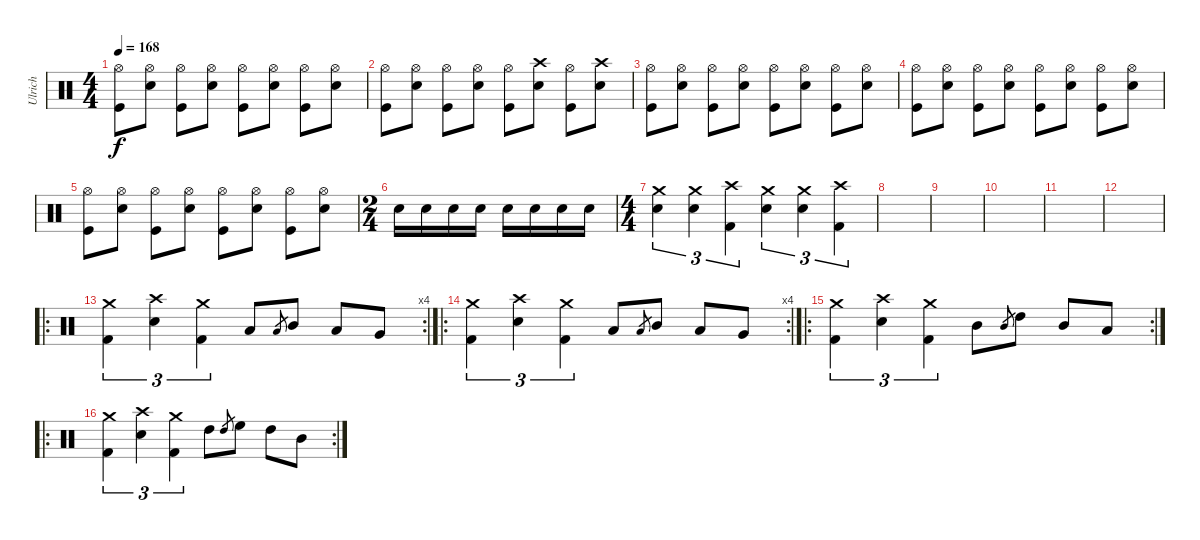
\track ("Ulrich" "Ulrich") {instrument percussion}
\staff {score}
\articulation defaults
\ts (4 4)
\tempo 168
\clef neutral
\ks c
("Hi-Hat (open)" "Kick (hit)").8{dy f} ("Hi-Hat (open)" "Snare (hit) 2").8 ("Hi-Hat (open)" "Kick (hit)").8 ("Hi-Hat (open)" "Snare (hit) 2").8 ("Hi-Hat (open)" "Kick (hit)").8 ("Hi-Hat (open)" "Snare (hit) 2").8 ("Hi-Hat (open)" "Kick (hit)").8 ("Hi-Hat (open)" "Snare (hit) 2").8 |
("Hi-Hat (open)" "Kick (hit)").8 ("Hi-Hat (open)" "Snare (hit) 2").8 ("Hi-Hat (open)" "Kick (hit)").8 ("Hi-Hat (open)" "Snare (hit) 2").8 ("Hi-Hat (open)" "Kick (hit)").8 ("Crash high (hit)" "Snare (hit) 2").8 ("Hi-Hat (open)" "Kick (hit)").8 ("Crash high (hit)" "Snare (hit) 2").8 |
("Hi-Hat (open)" "Kick (hit)").8 ("Hi-Hat (open)" "Snare (hit) 2").8 ("Hi-Hat (open)" "Kick (hit)").8 ("Hi-Hat (open)" "Snare (hit) 2").8 ("Hi-Hat (open)" "Kick (hit)").8 ("Hi-Hat (open)" "Snare (hit) 2").8 ("Hi-Hat (open)" "Kick (hit)").8 ("Hi-Hat (open)" "Snare (hit) 2").8 |
("Hi-Hat (open)" "Kick (hit)").8 ("Hi-Hat (open)" "Snare (hit) 2").8 ("Hi-Hat (open)" "Kick (hit)").8 ("Hi-Hat (open)" "Snare (hit) 2").8 ("Hi-Hat (open)" "Kick (hit)").8 ("Hi-Hat (open)" "Snare (hit) 2").8 ("Hi-Hat (open)" "Kick (hit)").8 ("Hi-Hat (open)" "Snare (hit) 2").8 |
("Hi-Hat (open)" "Kick (hit)").8 ("Hi-Hat (open)" "Snare (hit) 2").8 ("Hi-Hat (open)" "Kick (hit)").8 ("Hi-Hat (open)" "Snare (hit) 2").8 ("Hi-Hat (open)" "Kick (hit)").8 ("Hi-Hat (open)" "Snare (hit) 2").8 ("Hi-Hat (open)" "Kick (hit)").8 ("Hi-Hat (open)" "Snare (hit) 2").8 |
\ts (2 4)
"Snare (hit) 2".16 "Snare (hit) 2".16 "Snare (hit) 2".16 "Snare (hit) 2".16 "Snare (hit) 2".16 "Snare (hit) 2".16 "Snare (hit) 2".16 "Snare (hit) 2".16 |
\ts (4 4)
("Crash medium (hit)" "Snare (hit) 2").4{tu (3 2)} ("Crash medium (hit)" "Snare (hit) 2").4{tu (3 2)} ("Crash high (hit)" "Kick (hit) 2").4{tu (3 2)} ("Crash medium (hit)" "Snare (hit) 2").4{tu (3 2)} ("Crash medium (hit)" "Snare (hit) 2").4{tu (3 2)} ("Crash high (hit)" "Kick (hit) 2").4{tu (3 2)} |
|
|
|
|
|
\ro
\rc 4
("Crash medium (hit)" "Kick (hit) 2").4{tu (3 2)} ("Crash high (hit)" "Snare (hit) 2").4{tu (3 2)} ("Crash medium (hit)" "Kick (hit) 2").4{tu (3 2)} "Low Tom (hit)".8 "Low Tom (hit)".8{gr} "Mid Tom (hit)".8 "Low Tom (hit)".8 "Very Low Tom (hit)".8 |
\ro
\rc 4
("Crash medium (hit)" "Kick (hit) 2").4{tu (3 2)} ("Crash high (hit)" "Snare (hit) 2").4{tu (3 2)} ("Crash medium (hit)" "Kick (hit) 2").4{tu (3 2)} "Low Tom (hit)".8 "Low Tom (hit)".8{gr} "Mid Tom (hit)".8 "Low Tom (hit)".8 "Very Low Tom (hit)".8 |
\ro
\rc 2
("Crash medium (hit)" "Kick (hit) 2").4{tu (3 2)} ("Crash high (hit)" "Snare (hit) 2").4{tu (3 2)} ("Crash medium (hit)" "Kick (hit) 2").4{tu (3 2)} "Mid Tom (hit)".8 "Mid Tom (hit)".8{gr} "High Tom (hit)".8 "Mid Tom (hit)".8 "Low Tom (hit)".8 |
\ro
\rc 2
("Crash medium (hit)" "Kick (hit) 2").4{tu (3 2)} ("Crash high (hit)" "Snare (hit) 2").4{tu (3 2)} ("Crash medium (hit)" "Kick (hit) 2").4{tu (3 2)} "High Tom (hit)".8 "High Tom (hit)".8{gr} "High Floor Tom (hit)".8 "High Tom (hit)".8 "Mid Tom (hit)".8
